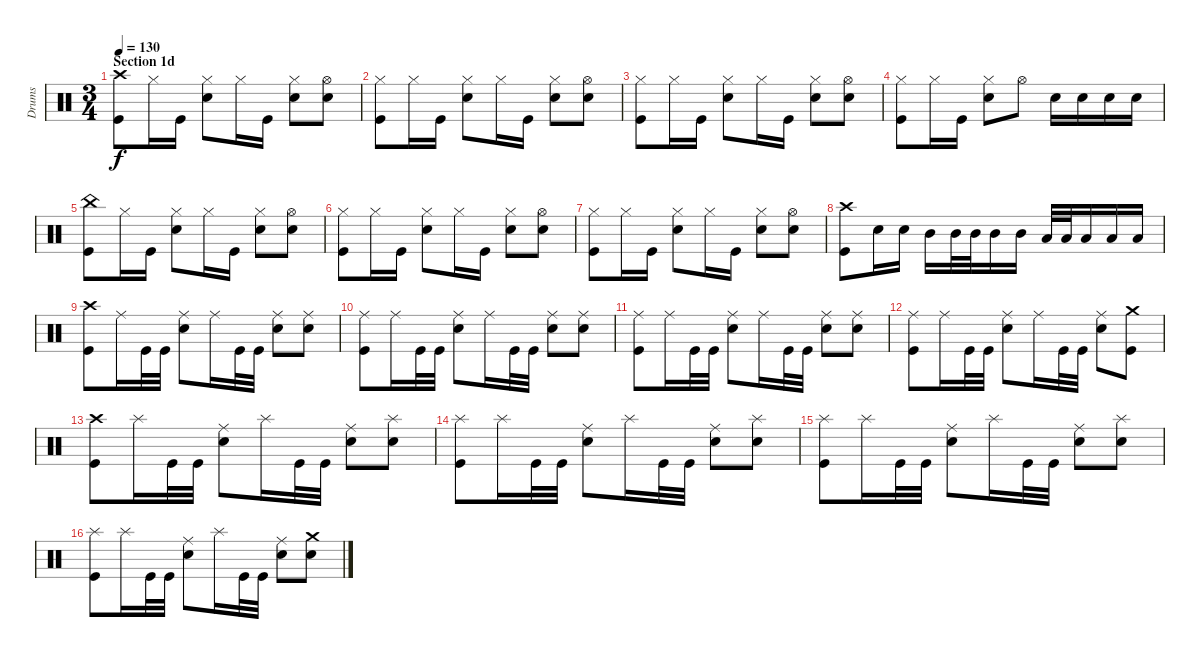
\track ("Drums" "Drums") {instrument percussion}
\staff {score}
\articulation defaults
\ts (3 4)
\section ("" "Section 1d")
\tempo 130
\clef neutral
\ks c
("Crash high (hit)" "Kick (hit)").8{dy f} "Hi-Hat (closed)".16 "Kick (hit)".16 ("Hi-Hat (closed)" "Snare (hit) 2").8 "Hi-Hat (closed)".16 "Kick (hit)".16 ("Hi-Hat (closed)" "Snare (hit) 2").8 ("Hi-Hat (open)" "Snare (hit) 2").8 |
("Hi-Hat (closed)" "Kick (hit)").8 "Hi-Hat (closed)".16 "Kick (hit)".16 ("Hi-Hat (closed)" "Snare (hit) 2").8 "Hi-Hat (closed)".16 "Kick (hit)".16 ("Hi-Hat (closed)" "Snare (hit) 2").8 ("Hi-Hat (open)" "Snare (hit) 2").8 |
("Hi-Hat (closed)" "Kick (hit)").8 "Hi-Hat (closed)".16 "Kick (hit)".16 ("Hi-Hat (closed)" "Snare (hit) 2").8 "Hi-Hat (closed)".16 "Kick (hit)".16 ("Hi-Hat (closed)" "Snare (hit) 2").8 ("Hi-Hat (open)" "Snare (hit) 2").8 |
("Hi-Hat (closed)" "Kick (hit)").8 "Hi-Hat (closed)".16 "Kick (hit)".16 ("Hi-Hat (closed)" "Snare (hit) 2").8 "Hi-Hat (open)".8 "Snare (hit) 2".16 "Snare (hit) 2".16 "Snare (hit) 2".16 "Snare (hit) 2".16 |
("China (hit)" "Kick (hit)").8 "Hi-Hat (closed)".16 "Kick (hit)".16 ("Hi-Hat (closed)" "Snare (hit) 2").8 "Hi-Hat (closed)".16 "Kick (hit)".16 ("Hi-Hat (closed)" "Snare (hit) 2").8 ("Hi-Hat (open)" "Snare (hit) 2").8 |
("Hi-Hat (closed)" "Kick (hit)").8 "Hi-Hat (closed)".16 "Kick (hit)".16 ("Hi-Hat (closed)" "Snare (hit) 2").8 "Hi-Hat (closed)".16 "Kick (hit)".16 ("Hi-Hat (closed)" "Snare (hit) 2").8 ("Hi-Hat (open)" "Snare (hit) 2").8 |
("Hi-Hat (closed)" "Kick (hit)").8 "Hi-Hat (closed)".16 "Kick (hit)".16 ("Hi-Hat (closed)" "Snare (hit) 2").8 "Hi-Hat (closed)".16 "Kick (hit)".16 ("Hi-Hat (closed)" "Snare (hit) 2").8 ("Hi-Hat (open)" "Snare (hit) 2").8 |
("Crash high (hit)" "Kick (hit)").8 "Snare (hit) 2".16 "Snare (hit) 2".16 "Mid Tom (hit)".16 "Mid Tom (hit)".32 "Mid Tom (hit)".32 "Mid Tom (hit)".16 "Mid Tom (hit)".16 "Low Tom (hit)".32 "Low Tom (hit)".32 "Low Tom (hit)".16 "Low Tom (hit)".16 "Low Tom (hit)".16 |
("Crash high (hit)" "Kick (hit)").8 "Ride (middle)".16 "Kick (hit)".32 "Kick (hit)".32 ("Ride (middle)" "Snare (hit) 2").8 "Ride (middle)".16 "Kick (hit)".32 "Kick (hit)".32 ("Ride (middle)" "Snare (hit) 2").8 ("Ride (middle)" "Snare (hit) 2").8 |
("Ride (middle)" "Kick (hit)").8 "Ride (middle)".16 "Kick (hit)".32 "Kick (hit)".32 ("Ride (middle)" "Snare (hit) 2").8 "Ride (middle)".16 "Kick (hit)".32 "Kick (hit)".32 ("Ride (middle)" "Snare (hit) 2").8 ("Ride (middle)" "Snare (hit) 2").8 |
("Ride (middle)" "Kick (hit)").8 "Ride (middle)".16 "Kick (hit)".32 "Kick (hit)".32 ("Ride (middle)" "Snare (hit) 2").8 "Ride (middle)".16 "Kick (hit)".32 "Kick (hit)".32 ("Ride (middle)" "Snare (hit) 2").8 ("Ride (middle)" "Snare (hit) 2").8 |
("Ride (middle)" "Kick (hit)").8 "Ride (middle)".16 "Kick (hit)".32 "Kick (hit)".32 ("Ride (middle)" "Snare (hit) 2").8 "Ride (middle)".16 "Kick (hit)".32 "Kick (hit)".32 ("Ride (middle)" "Snare (hit) 2").8 ("Crash medium (hit)" "Kick (hit)").8 |
("Crash high (hit)" "Kick (hit)").8 "Splash (hit)".16 "Kick (hit)".32 "Kick (hit)".32 ("Ride (middle)" "Snare (hit) 2").8 "Splash (hit)".16 "Kick (hit)".32 "Kick (hit)".32 ("Ride (middle)" "Snare (hit) 2").8 ("Splash (hit)" "Snare (hit) 2").8 |
("Splash (hit)" "Kick (hit)").8 "Splash (hit)".16 "Kick (hit)".32 "Kick (hit)".32 ("Ride (middle)" "Snare (hit) 2").8 "Splash (hit)".16 "Kick (hit)".32 "Kick (hit)".32 ("Ride (middle)" "Snare (hit) 2").8 ("Splash (hit)" "Snare (hit) 2").8 |
("Splash (hit)" "Kick (hit)").8 "Splash (hit)".16 "Kick (hit)".32 "Kick (hit)".32 ("Ride (middle)" "Snare (hit) 2").8 "Splash (hit)".16 "Kick (hit)".32 "Kick (hit)".32 ("Ride (middle)" "Snare (hit) 2").8 ("Splash (hit)" "Snare (hit) 2").8 |
("Splash (hit)" "Kick (hit)").8 "Splash (hit)".16 "Kick (hit)".32 "Kick (hit)".32 ("Ride (middle)" "Snare (hit) 2").8 "Splash (hit)".16 "Kick (hit)".32 "Kick (hit)".32 ("Ride (middle)" "Snare (hit) 2").8 ("Crash medium (hit)" "Snare (hit) 2").8
